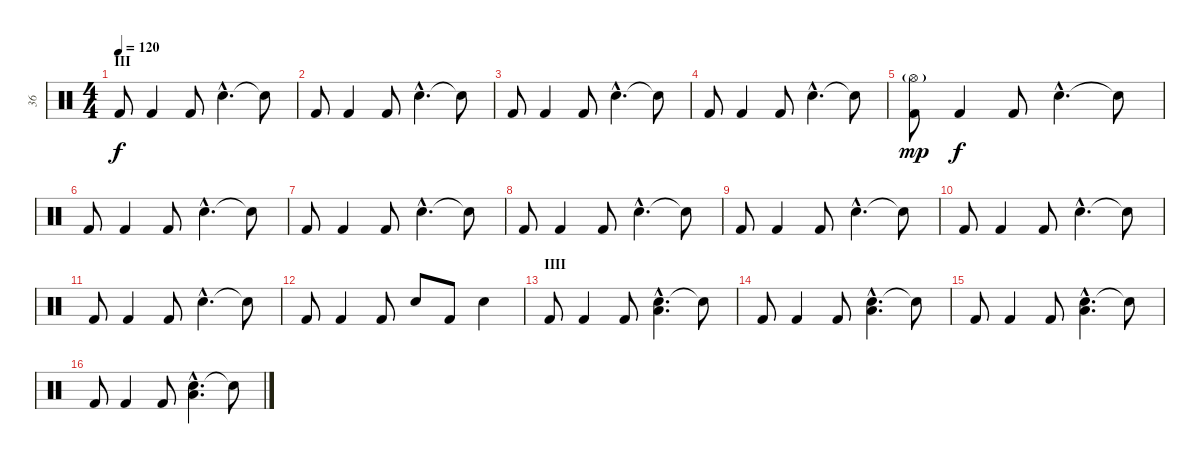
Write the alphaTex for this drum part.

\track ("36" "36") {instrument percussion}
\staff {score}
\articulation defaults
\ts (4 4)
\section ("" "III")
\tempo 120
\clef neutral
\ks c "Kick (hit) 2".8{dy f} "Kick (hit) 2".4 "Kick (hit) 2".8 "Electric Snare (hit)"{hac}.4{d} "Snare (hit)"{t}.8
|
"Kick (hit) 2".8 "Kick (hit) 2".4 "Kick (hit) 2".8 "Electric Snare (hit)"{hac}.4{d} "Snare (hit)"{t}.8 |
"Kick (hit) 2".8 "Kick (hit) 2".4 "Kick (hit) 2".8 "Electric Snare (hit)"{hac}.4{d} "Snare (hit)"{t}.8 |
"Kick (hit) 2".8 "Kick (hit) 2".4 "Kick (hit) 2".8 "Electric Snare (hit)"{hac}.4{d} "Snare (hit)"{t}.8 |
("Kick (hit) 2" "Hi-Hat (open)"{g}).8{dy mp} "Kick (hit) 2".4{dy f} "Kick (hit) 2".8 "Electric Snare (hit)"{hac}.4{d} "Snare (hit)"{t}.8 |
"Kick (hit) 2".8 "Kick (hit) 2".4 "Kick (hit) 2".8 "Electric Snare (hit)"{hac}.4{d} "Snare (hit)"{t}.8 |
"Kick (hit) 2".8 "Kick (hit) 2".4 "Kick (hit) 2".8 "Electric Snare (hit)"{hac}.4{d} "Snare (hit)"{t}.8 |
"Kick (hit) 2".8 "Kick (hit) 2".4 "Kick (hit) 2".8 "Electric Snare (hit)"{hac}.4{d} "Snare (hit)"{t}.8 |
"Kick (hit) 2".8 "Kick (hit) 2".4 "Kick (hit) 2".8 "Electric Snare (hit)"{hac}.4{d} "Snare (hit)"{t}.8 |
"Kick (hit) 2".8 "Kick (hit) 2".4 "Kick (hit) 2".8 "Electric Snare (hit)"{hac}.4{d} "Snare (hit)"{t}.8 |
"Kick (hit) 2".8 "Kick (hit) 2".4 "Kick (hit) 2".8 "Electric Snare (hit)"{hac}.4{d} "Snare (hit)"{t}.8 |
"Kick (hit) 2".8 "Kick (hit) 2".4 "Kick (hit) 2".8 "Electric Snare (hit)".8 "Kick (hit) 2".8 "Electric Snare (hit)".4 |
\section ("" "IIII")
"Kick (hit) 2".8 "Kick (hit) 2".4 "Kick (hit) 2".8 ("Electric Snare (hit)"{hac} "Low Floor Tom (hit)"{hac}).4{d} "Snare (hit)"{t}.8 |
"Kick (hit) 2".8 "Kick (hit) 2".4 "Kick (hit) 2".8 ("Electric Snare (hit)"{hac} "Low Floor Tom (hit)"{hac}).4{d} "Snare (hit)"{t}.8 |
"Kick (hit) 2".8 "Kick (hit) 2".4 "Kick (hit) 2".8 ("Electric Snare (hit)"{hac} "Low Floor Tom (hit)"{hac}).4{d} "Snare (hit)"{t}.8 |
"Kick (hit) 2".8 "Kick (hit) 2".4 "Kick (hit) 2".8 ("Electric Snare (hit)"{hac} "Low Floor Tom (hit)"{hac}).4{d} "Snare (hit)"{t}.8
